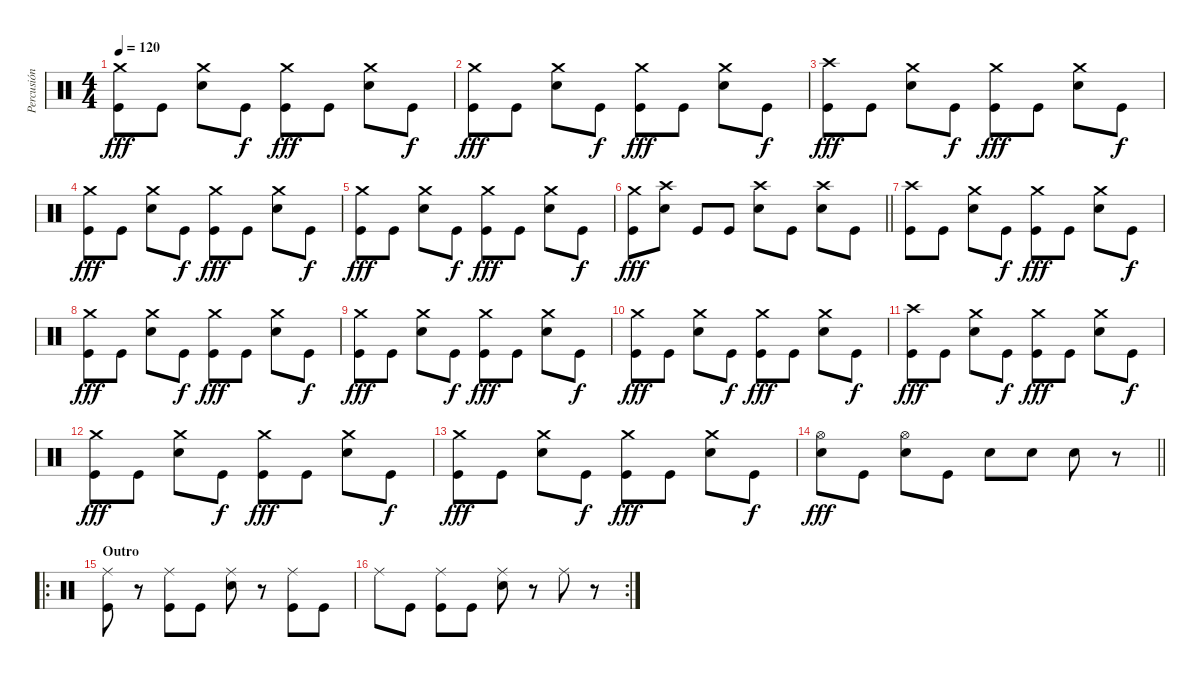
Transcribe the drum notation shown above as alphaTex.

\track ("Percusión" "Percusión") {instrument percussion}
\staff {score}
\articulation defaults
\ts (4 4)
\tempo 120
\clef neutral
\ks c
("Crash medium (hit)" "Kick (hit)").8{dy fff} "Kick (hit)".8 ("Crash medium (hit)" "Electric Snare (hit)").8 "Kick (hit)".8{dy f} ("Crash medium (hit)" "Kick (hit)").8{dy fff} "Kick (hit)".8 ("Crash medium (hit)" "Electric Snare (hit)").8 "Kick (hit)".8{dy f} |
("Crash medium (hit)" "Kick (hit)").8{dy fff} "Kick (hit)".8 ("Crash medium (hit)" "Electric Snare (hit)").8 "Kick (hit)".8{dy f} ("Crash medium (hit)" "Kick (hit)").8{dy fff} "Kick (hit)".8 ("Crash medium (hit)" "Electric Snare (hit)").8 "Kick (hit)".8{dy f} |
("Crash high (hit)" "Kick (hit)").8{dy fff} "Kick (hit)".8 ("Crash medium (hit)" "Electric Snare (hit)").8 "Kick (hit)".8{dy f} ("Crash medium (hit)" "Kick (hit)").8{dy fff} "Kick (hit)".8 ("Crash medium (hit)" "Electric Snare (hit)").8 "Kick (hit)".8{dy f} |
("Crash medium (hit)" "Kick (hit)").8{dy fff} "Kick (hit)".8 ("Crash medium (hit)" "Electric Snare (hit)").8 "Kick (hit)".8{dy f} ("Crash medium (hit)" "Kick (hit)").8{dy fff} "Kick (hit)".8 ("Crash medium (hit)" "Electric Snare (hit)").8 "Kick (hit)".8{dy f} |
("Crash medium (hit)" "Kick (hit)").8{dy fff} "Kick (hit)".8 ("Crash medium (hit)" "Electric Snare (hit)").8 "Kick (hit)".8{dy f} ("Crash medium (hit)" "Kick (hit)").8{dy fff} "Kick (hit)".8 ("Crash medium (hit)" "Electric Snare (hit)").8 "Kick (hit)".8{dy f} |
\barLineRight lightlight
("Crash medium (hit)" "Kick (hit)").8{dy fff} ("Crash high (hit)" "Electric Snare (hit)").8 "Kick (hit)".8 "Kick (hit)".8 ("Crash high (hit)" "Electric Snare (hit)").8 "Kick (hit)".8 ("Crash high (hit)" "Electric Snare (hit)").8 "Kick (hit)".8 |
("Crash high (hit)" "Kick (hit)").8 "Kick (hit)".8 ("Crash medium (hit)" "Electric Snare (hit)").8 "Kick (hit)".8{dy f} ("Crash medium (hit)" "Kick (hit)").8{dy fff} "Kick (hit)".8 ("Crash medium (hit)" "Electric Snare (hit)").8 "Kick (hit)".8{dy f} |
("Crash medium (hit)" "Kick (hit)").8{dy fff} "Kick (hit)".8 ("Crash medium (hit)" "Electric Snare (hit)").8 "Kick (hit)".8{dy f} ("Crash medium (hit)" "Kick (hit)").8{dy fff} "Kick (hit)".8 ("Crash medium (hit)" "Electric Snare (hit)").8 "Kick (hit)".8{dy f} |
("Crash medium (hit)" "Kick (hit)").8{dy fff} "Kick (hit)".8 ("Crash medium (hit)" "Electric Snare (hit)").8 "Kick (hit)".8{dy f} ("Crash medium (hit)" "Kick (hit)").8{dy fff} "Kick (hit)".8 ("Crash medium (hit)" "Electric Snare (hit)").8 "Kick (hit)".8{dy f} |
("Crash medium (hit)" "Kick (hit)").8{dy fff} "Kick (hit)".8 ("Crash medium (hit)" "Electric Snare (hit)").8 "Kick (hit)".8{dy f} ("Crash medium (hit)" "Kick (hit)").8{dy fff} "Kick (hit)".8 ("Crash medium (hit)" "Electric Snare (hit)").8 "Kick (hit)".8{dy f} |
("Crash high (hit)" "Kick (hit)").8{dy fff} "Kick (hit)".8 ("Crash medium (hit)" "Electric Snare (hit)").8 "Kick (hit)".8{dy f} ("Crash medium (hit)" "Kick (hit)").8{dy fff} "Kick (hit)".8 ("Crash medium (hit)" "Electric Snare (hit)").8 "Kick (hit)".8{dy f} |
("Crash medium (hit)" "Kick (hit)").8{dy fff} "Kick (hit)".8 ("Crash medium (hit)" "Electric Snare (hit)").8 "Kick (hit)".8{dy f} ("Crash medium (hit)" "Kick (hit)").8{dy fff} "Kick (hit)".8 ("Crash medium (hit)" "Electric Snare (hit)").8 "Kick (hit)".8{dy f} |
("Crash medium (hit)" "Kick (hit)").8{dy fff} "Kick (hit)".8 ("Crash medium (hit)" "Electric Snare (hit)").8 "Kick (hit)".8{dy f} ("Crash medium (hit)" "Kick (hit)").8{dy fff} "Kick (hit)".8 ("Crash medium (hit)" "Electric Snare (hit)").8 "Kick (hit)".8{dy f} |
\barLineRight lightlight
("Hi-Hat (open)" "Electric Snare (hit)").8{dy fff} "Kick (hit)".8 ("Hi-Hat (open)" "Electric Snare (hit)").8 "Kick (hit)".8 "Electric Snare (hit)".8 "Electric Snare (hit)".8 "Electric Snare (hit)".8 r.8 |
\ro
\section ("" "Outro")
("Ride (middle)" "Kick (hit)").8 r.8 ("Ride (middle)" "Kick (hit)").8 "Kick (hit)".8 ("Ride (middle)" "Electric Snare (hit)").8 r.8 ("Ride (middle)" "Kick (hit)").8 "Kick (hit)".8 |
\rc 2 "Ride (middle)".8 "Kick (hit)".8
("Ride (middle)" "Kick (hit)").8 "Kick (hit)".8 ("Ride (middle)" "Electric Snare (hit)").8 r.8 "Ride (middle)".8 r.8
